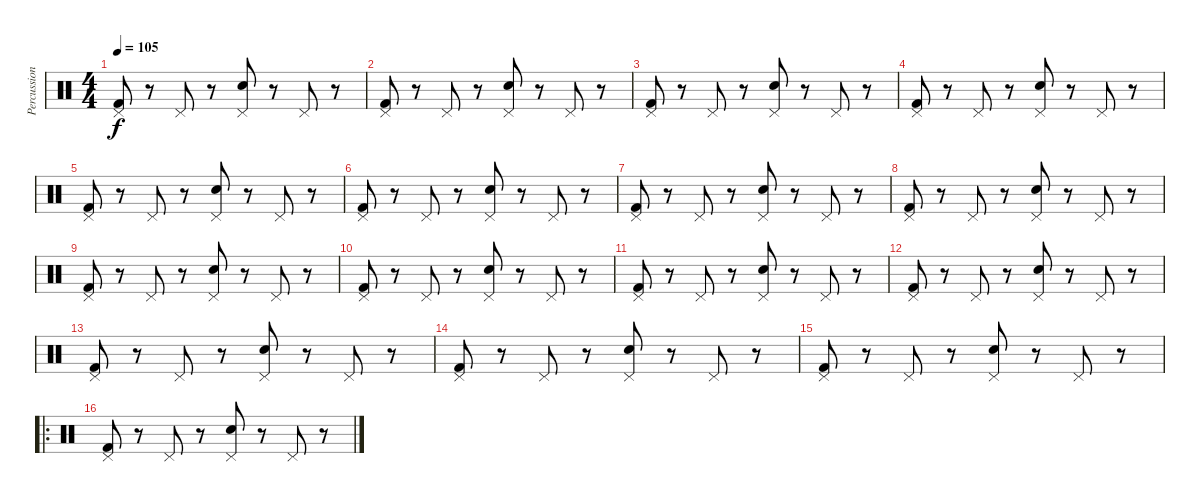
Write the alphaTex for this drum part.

\track ("Percussion" "Percussion") {instrument percussion}
\staff {score}
\articulation defaults
\ts (4 4)
\tempo 105
\clef neutral
\ks c
("Pedal Hi-Hat (hit)" "Kick (hit) 2").8{dy f} r.8 "Pedal Hi-Hat (hit)".8 r.8 ("Pedal Hi-Hat (hit)" "Snare (hit) 2").8 r.8 "Pedal Hi-Hat (hit)".8 r.8 |
("Pedal Hi-Hat (hit)" "Kick (hit) 2").8 r.8 "Pedal Hi-Hat (hit)".8 r.8 ("Pedal Hi-Hat (hit)" "Snare (hit) 2").8 r.8 "Pedal Hi-Hat (hit)".8 r.8 |
("Pedal Hi-Hat (hit)" "Kick (hit) 2").8 r.8 "Pedal Hi-Hat (hit)".8 r.8 ("Pedal Hi-Hat (hit)" "Snare (hit) 2").8 r.8 "Pedal Hi-Hat (hit)".8 r.8 |
("Pedal Hi-Hat (hit)" "Kick (hit) 2").8 r.8 "Pedal Hi-Hat (hit)".8 r.8 ("Pedal Hi-Hat (hit)" "Snare (hit) 2").8 r.8 "Pedal Hi-Hat (hit)".8 r.8 |
("Pedal Hi-Hat (hit)" "Kick (hit) 2").8 r.8 "Pedal Hi-Hat (hit)".8 r.8 ("Pedal Hi-Hat (hit)" "Snare (hit) 2").8 r.8 "Pedal Hi-Hat (hit)".8 r.8 |
("Pedal Hi-Hat (hit)" "Kick (hit) 2").8 r.8 "Pedal Hi-Hat (hit)".8 r.8 ("Pedal Hi-Hat (hit)" "Snare (hit) 2").8 r.8 "Pedal Hi-Hat (hit)".8 r.8 |
("Pedal Hi-Hat (hit)" "Kick (hit) 2").8 r.8 "Pedal Hi-Hat (hit)".8 r.8 ("Pedal Hi-Hat (hit)" "Snare (hit) 2").8 r.8 "Pedal Hi-Hat (hit)".8 r.8 |
("Pedal Hi-Hat (hit)" "Kick (hit) 2").8 r.8 "Pedal Hi-Hat (hit)".8 r.8 ("Pedal Hi-Hat (hit)" "Snare (hit) 2").8 r.8 "Pedal Hi-Hat (hit)".8 r.8 |
("Pedal Hi-Hat (hit)" "Kick (hit) 2").8 r.8 "Pedal Hi-Hat (hit)".8 r.8 ("Pedal Hi-Hat (hit)" "Snare (hit) 2").8 r.8 "Pedal Hi-Hat (hit)".8 r.8 |
("Pedal Hi-Hat (hit)" "Kick (hit) 2").8 r.8 "Pedal Hi-Hat (hit)".8 r.8 ("Pedal Hi-Hat (hit)" "Snare (hit) 2").8 r.8 "Pedal Hi-Hat (hit)".8 r.8 |
("Pedal Hi-Hat (hit)" "Kick (hit) 2").8 r.8 "Pedal Hi-Hat (hit)".8 r.8 ("Pedal Hi-Hat (hit)" "Snare (hit) 2").8 r.8 "Pedal Hi-Hat (hit)".8 r.8 |
("Pedal Hi-Hat (hit)" "Kick (hit) 2").8 r.8 "Pedal Hi-Hat (hit)".8 r.8 ("Pedal Hi-Hat (hit)" "Snare (hit) 2").8 r.8 "Pedal Hi-Hat (hit)".8 r.8 |
("Pedal Hi-Hat (hit)" "Kick (hit) 2").8 r.8 "Pedal Hi-Hat (hit)".8 r.8 ("Pedal Hi-Hat (hit)" "Snare (hit) 2").8 r.8 "Pedal Hi-Hat (hit)".8 r.8 |
("Pedal Hi-Hat (hit)" "Kick (hit) 2").8 r.8 "Pedal Hi-Hat (hit)".8 r.8 ("Pedal Hi-Hat (hit)" "Snare (hit) 2").8 r.8 "Pedal Hi-Hat (hit)".8 r.8 |
("Pedal Hi-Hat (hit)" "Kick (hit) 2").8 r.8 "Pedal Hi-Hat (hit)".8 r.8 ("Pedal Hi-Hat (hit)" "Snare (hit) 2").8 r.8 "Pedal Hi-Hat (hit)".8 r.8 |
\ro
("Pedal Hi-Hat (hit)" "Kick (hit) 2").8 r.8 "Pedal Hi-Hat (hit)".8 r.8 ("Pedal Hi-Hat (hit)" "Snare (hit) 2").8 r.8 "Pedal Hi-Hat (hit)".8 r.8
